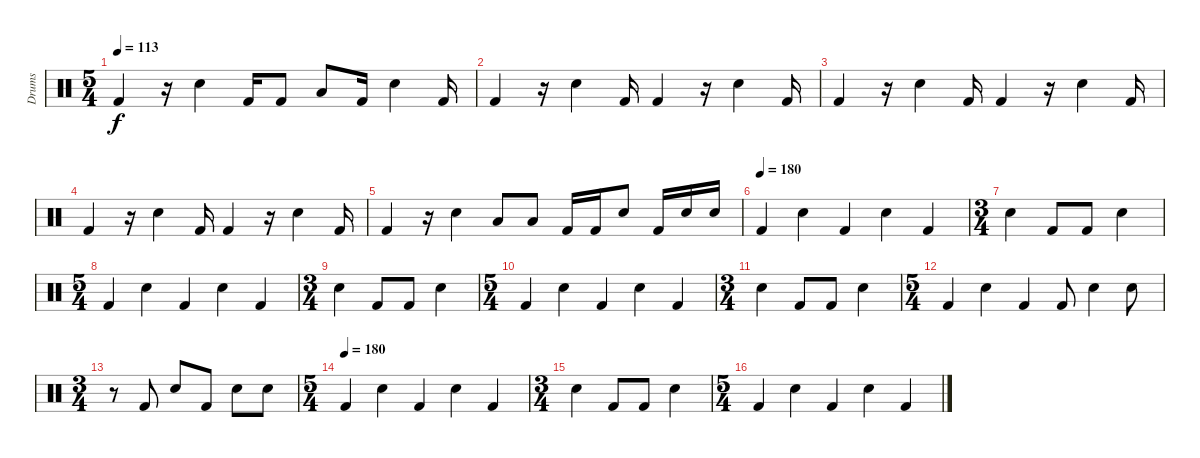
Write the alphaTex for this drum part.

\track ("Drums" "Drums") {instrument percussion}
\staff {score}
\articulation defaults
\ts (5 4)
\tempo 113
\clef neutral
\ks c "Kick (hit) 2".4{dy f}
r.16 "Electric Snare (hit)".4 "Kick (hit) 2".16 "Kick (hit) 2".8 "Low Tom (hit)".8 "Kick (hit) 2".16 "Electric Snare (hit)".4 "Kick (hit) 2".16 |
"Kick (hit) 2".4 r.16 "Electric Snare (hit)".4 "Kick (hit) 2".16 "Kick (hit) 2".4 r.16 "Electric Snare (hit)".4 "Kick (hit) 2".16 |
"Kick (hit) 2".4 r.16 "Electric Snare (hit)".4 "Kick (hit) 2".16 "Kick (hit) 2".4 r.16 "Electric Snare (hit)".4 "Kick (hit) 2".16 |
"Kick (hit) 2".4 r.16 "Electric Snare (hit)".4 "Kick (hit) 2".16 "Kick (hit) 2".4 r.16 "Electric Snare (hit)".4 "Kick (hit) 2".16 |
"Kick (hit) 2".4 r.16 "Electric Snare (hit)".4 "Low Tom (hit)".8 "Low Tom (hit)".8 "Kick (hit) 2".16 "Kick (hit) 2".16 "Electric Snare (hit)".8 "Kick (hit) 2".16 "Electric Snare (hit)".16 "Electric Snare (hit)".16 |
\tempo (180)
"Kick (hit) 2".4 "Electric Snare (hit)".4 "Kick (hit) 2".4 "Electric Snare (hit)".4 "Kick (hit) 2".4 |
\ts (3 4)
"Electric Snare (hit)".4 "Kick (hit) 2".8 "Kick (hit) 2".8 "Electric Snare (hit)".4 |
\ts (5 4)
"Kick (hit) 2".4 "Electric Snare (hit)".4 "Kick (hit) 2".4 "Electric Snare (hit)".4 "Kick (hit) 2".4 |
\ts (3 4)
"Electric Snare (hit)".4 "Kick (hit) 2".8 "Kick (hit) 2".8 "Electric Snare (hit)".4 |
\ts (5 4)
"Kick (hit) 2".4 "Electric Snare (hit)".4 "Kick (hit) 2".4 "Electric Snare (hit)".4 "Kick (hit) 2".4 |
\ts (3 4)
"Electric Snare (hit)".4 "Kick (hit) 2".8 "Kick (hit) 2".8 "Electric Snare (hit)".4 |
\ts (5 4)
"Kick (hit) 2".4 "Electric Snare (hit)".4 "Kick (hit) 2".4 "Kick (hit) 2".8 "Electric Snare (hit)".4 "Electric Snare (hit)".8 |
\ts (3 4)
r.8 "Kick (hit) 2".8 "Electric Snare (hit)".8 "Kick (hit) 2".8 "Electric Snare (hit)".8 "Electric Snare (hit)".8 |
\ts (5 4)
\tempo (180)
"Kick (hit) 2".4 "Electric Snare (hit)".4 "Kick (hit) 2".4 "Electric Snare (hit)".4 "Kick (hit) 2".4 |
\ts (3 4)
"Electric Snare (hit)".4 "Kick (hit) 2".8 "Kick (hit) 2".8 "Electric Snare (hit)".4 |
\ts (5 4)
"Kick (hit) 2".4 "Electric Snare (hit)".4 "Kick (hit) 2".4 "Electric Snare (hit)".4 "Kick (hit) 2".4
